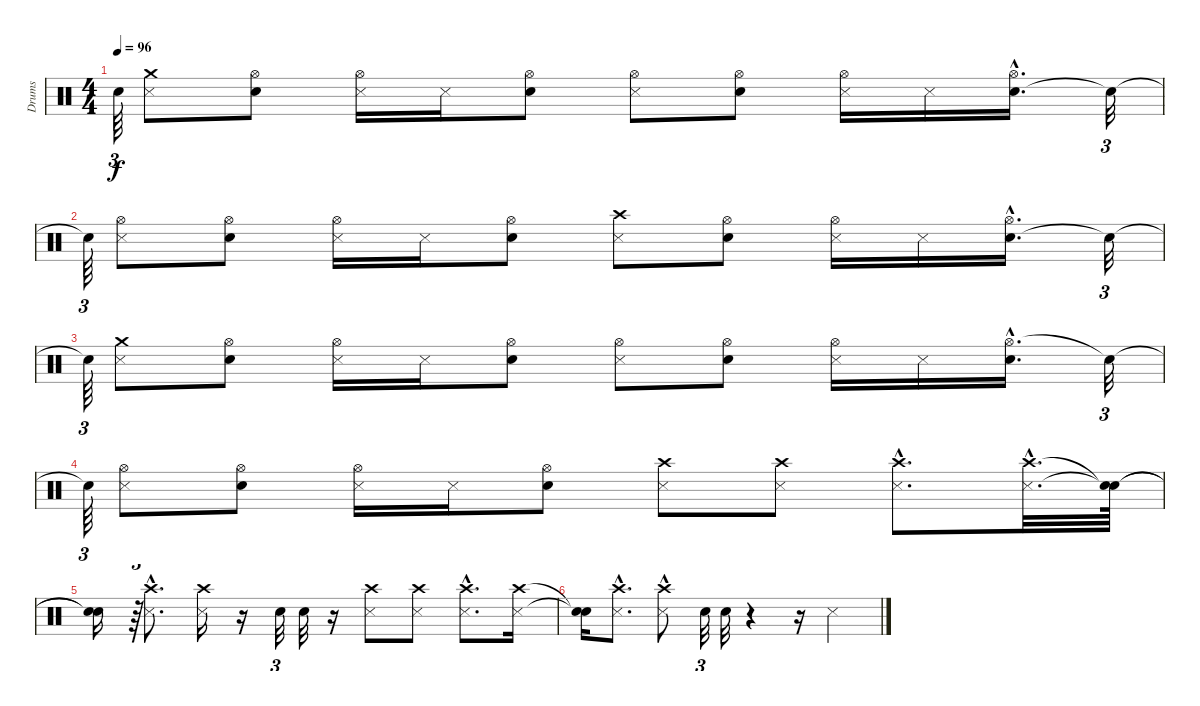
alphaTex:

\track ("Drums" "Drums") {instrument percussion}
\staff {score}
\articulation defaults
\ts (4 4)
\tempo 96
\clef neutral
\ks c "Snare (hit)"{t}.64{tu (3 2) dy f}
("Metronome (hit)" "Crash medium (hit)").8 ("Electric Snare (hit)" "Hi-Hat (open)").8 ("Metronome (hit)" "Hi-Hat (open)").16 "Metronome (hit)".16 ("Hi-Hat (open)" "Electric Snare (hit)").8 ("Hi-Hat (open)" "Metronome (hit)").8 ("Electric Snare (hit)" "Hi-Hat (open)").8 ("Hi-Hat (open)" "Metronome (hit)").16 "Metronome (hit)".16 ("Electric Snare (hit)" "Hi-Hat (open)"{hac}).16{d} "Snare (hit)"{t}.32{tu (3 2)} |
"Snare (hit)"{t}.64{tu (3 2)} ("Metronome (hit)" "Hi-Hat (open)").8 ("Electric Snare (hit)" "Hi-Hat (open)").8 ("Hi-Hat (open)" "Metronome (hit)").16 "Metronome (hit)".16 ("Electric Snare (hit)" "Hi-Hat (open)").8 ("Crash high (hit)" "Metronome (hit)").8 ("Hi-Hat (open)" "Electric Snare (hit)").8 ("Hi-Hat (open)" "Metronome (hit)").16 "Metronome (hit)".16 ("Electric Snare (hit)" "Hi-Hat (open)"{hac}).16{d} "Snare (hit)"{t}.32{tu (3 2)} |
"Snare (hit)"{t}.64{tu (3 2)} ("Metronome (hit)" "Crash medium (hit)").8 ("Hi-Hat (open)" "Electric Snare (hit)").8 ("Metronome (hit)" "Hi-Hat (open)").16 "Metronome (hit)".16 ("Hi-Hat (open)" "Electric Snare (hit)").8 ("Hi-Hat (open)" "Metronome (hit)").8 ("Electric Snare (hit)" "Hi-Hat (open)").8 ("Metronome (hit)" "Hi-Hat (open)").16 "Metronome (hit)".16 ("Hi-Hat (open)"{hac} "Electric Snare (hit)").16{d} "Snare (hit)"{t}.32{tu (3 2)} |
"Snare (hit)"{t}.64{tu (3 2)} ("Hi-Hat (open)" "Metronome (hit)").8 ("Hi-Hat (open)" "Electric Snare (hit)").8 ("Metronome (hit)" "Hi-Hat (open)").16 "Metronome (hit)".16 ("Electric Snare (hit)" "Hi-Hat (open)").8 ("Metronome (hit)" "Crash high (hit)").8 ("Metronome (hit)" "Crash high (hit)").8 ("Crash high (hit)"{hac} "Metronome (hit)").8{d} ("Crash high (hit)"{hac} "Metronome (hit)"{hac}).32{d} ("Snare (hit)"{t} "Snare (hit)"{t}).64 |
("Snare (hit)"{t} "Snare (hit)"{t}).16 r.64{tu (3 2)} ("Crash high (hit)"{hac} "Metronome (hit)").8{d} ("Metronome (hit)" "Crash high (hit)").16 r.16 "Electric Snare (hit)".32{tu (3 2)} "Electric Snare (hit)".32 r.16 ("Metronome (hit)" "Crash high (hit)").8 ("Crash high (hit)" "Metronome (hit)").8 ("Metronome (hit)" "Crash high (hit)"{hac}).8{d} ("Metronome (hit)" "Crash high (hit)").16 |
("Snare (hit)"{t} "Snare (hit)"{t}).16 ("Crash high (hit)"{hac} "Metronome (hit)").8{d} ("Crash high (hit)"{hac} "Metronome (hit)").8 "Electric Snare (hit)".32{tu (3 2)} "Electric Snare (hit)".32 r.4 r.16 "Metronome (hit)".4
